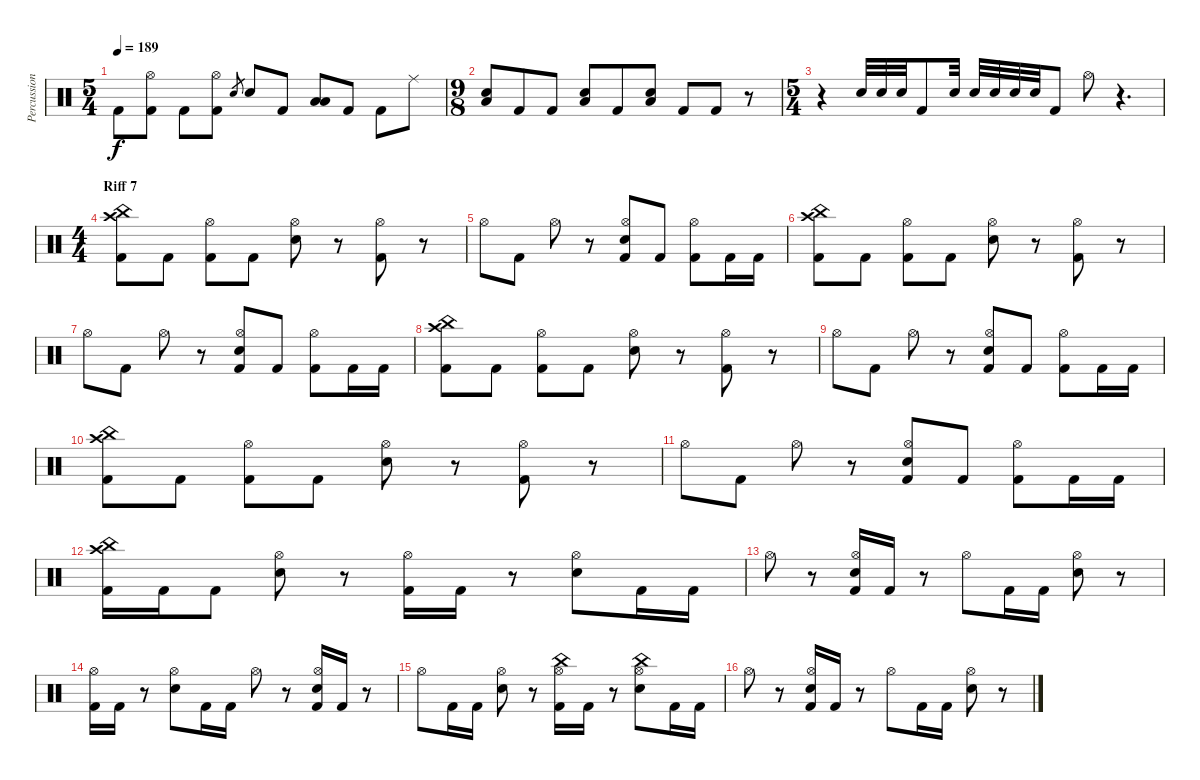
\track ("Percussion" "Percussion") {instrument percussion}
\staff {score}
\articulation defaults
\ts (5 4)
\tempo 189
\clef neutral
\ks c "Kick (hit) 2".8{dy f}
("Hi-Hat (open)" "Kick (hit) 2").8 "Kick (hit) 2".8 ("Hi-Hat (open)" "Kick (hit) 2").8 "Electric Snare (hit)".8{gr} "Electric Snare (hit)".8 "Kick (hit) 2".8 ("Low Tom (hit)" "Low Floor Tom (hit)").8 "Kick (hit) 2".8 "Kick (hit) 2".8 "Ride (middle)".8 |
\ts (9 8)
("Electric Snare (hit)" "Low Floor Tom (hit)").8 "Kick (hit) 2".8 "Kick (hit) 2".8 ("Electric Snare (hit)" "Low Floor Tom (hit)").8 "Kick (hit) 2".8 ("Electric Snare (hit)" "Low Floor Tom (hit)").8 "Kick (hit) 2".8 "Kick (hit) 2".8 r.8 |
\ts (5 4)
r.4 "Electric Snare (hit)".32 "Electric Snare (hit)".32 "Electric Snare (hit)".32 "Kick (hit) 2".8 "Electric Snare (hit)".32 "Electric Snare (hit)".32 "Electric Snare (hit)".32 "Electric Snare (hit)".32 "Electric Snare (hit)".32 "Kick (hit) 2".8 "Hi-Hat (open)".8 r.4{d} |
\ts (4 4)
\section ("" "Riff 7")
("China (hit)" "Crash high (hit)" "Kick (hit) 2").8 "Kick (hit) 2".8 ("Hi-Hat (open)" "Kick (hit) 2").8 "Kick (hit) 2".8 ("Hi-Hat (open)" "Electric Snare (hit)").8 r.8 ("Hi-Hat (open)" "Kick (hit) 2").8 r.8 |
"Hi-Hat (open)".8 "Kick (hit) 2".8 "Hi-Hat (open)".8 r.8 ("Hi-Hat (open)" "Electric Snare (hit)" "Kick (hit) 2").8 "Kick (hit) 2".8 ("Hi-Hat (open)" "Kick (hit) 2").8 "Kick (hit) 2".16 "Kick (hit) 2".16 |
("China (hit)" "Crash high (hit)" "Kick (hit) 2").8 "Kick (hit) 2".8 ("Hi-Hat (open)" "Kick (hit) 2").8 "Kick (hit) 2".8 ("Hi-Hat (open)" "Electric Snare (hit)").8 r.8 ("Hi-Hat (open)" "Kick (hit) 2").8 r.8 |
"Hi-Hat (open)".8 "Kick (hit) 2".8 "Hi-Hat (open)".8 r.8 ("Hi-Hat (open)" "Electric Snare (hit)" "Kick (hit) 2").8 "Kick (hit) 2".8 ("Hi-Hat (open)" "Kick (hit) 2").8 "Kick (hit) 2".16 "Kick (hit) 2".16 |
("China (hit)" "Crash high (hit)" "Kick (hit) 2").8 "Kick (hit) 2".8 ("Hi-Hat (open)" "Kick (hit) 2").8 "Kick (hit) 2".8 ("Hi-Hat (open)" "Electric Snare (hit)").8 r.8 ("Hi-Hat (open)" "Kick (hit) 2").8 r.8 |
"Hi-Hat (open)".8 "Kick (hit) 2".8 "Hi-Hat (open)".8 r.8 ("Hi-Hat (open)" "Electric Snare (hit)" "Kick (hit) 2").8 "Kick (hit) 2".8 ("Hi-Hat (open)" "Kick (hit) 2").8 "Kick (hit) 2".16 "Kick (hit) 2".16 |
("China (hit)" "Crash high (hit)" "Kick (hit) 2").8 "Kick (hit) 2".8 ("Hi-Hat (open)" "Kick (hit) 2").8 "Kick (hit) 2".8 ("Hi-Hat (open)" "Electric Snare (hit)").8 r.8 ("Hi-Hat (open)" "Kick (hit) 2").8 r.8 |
"Hi-Hat (open)".8 "Kick (hit) 2".8 "Hi-Hat (open)".8 r.8 ("Hi-Hat (open)" "Electric Snare (hit)" "Kick (hit) 2").8 "Kick (hit) 2".8 ("Hi-Hat (open)" "Kick (hit) 2").8 "Kick (hit) 2".16 "Kick (hit) 2".16 |
("China (hit)" "Crash high (hit)" "Kick (hit) 2").16 "Kick (hit) 2".16 "Kick (hit) 2".8 ("Hi-Hat (open)" "Electric Snare (hit)").8 r.8 ("Hi-Hat (open)" "Kick (hit) 2").16 "Kick (hit) 2".16 r.8 ("Hi-Hat (open)" "Electric Snare (hit)").8 "Kick (hit) 2".16 "Kick (hit) 2".16 |
"Hi-Hat (open)".8 r.8 ("Hi-Hat (open)" "Electric Snare (hit)" "Kick (hit) 2").16 "Kick (hit) 2".16 r.8 "Hi-Hat (open)".8 "Kick (hit) 2".16 "Kick (hit) 2".16 ("Hi-Hat (open)" "Electric Snare (hit)").8 r.8 |
("Hi-Hat (open)" "Kick (hit) 2").16 "Kick (hit) 2".16 r.8 ("Hi-Hat (open)" "Electric Snare (hit)").8 "Kick (hit) 2".16 "Kick (hit) 2".16 "Hi-Hat (open)".8 r.8 ("Hi-Hat (open)" "Electric Snare (hit)" "Kick (hit) 2").16 "Kick (hit) 2".16 r.8 |
"Hi-Hat (open)".8 "Kick (hit) 2".16 "Kick (hit) 2".16 ("Hi-Hat (open)" "Electric Snare (hit)").8 r.8 ("China (hit)" "Hi-Hat (open)" "Kick (hit) 2").16 "Kick (hit) 2".16 r.8 ("China (hit)" "Hi-Hat (open)" "Electric Snare (hit)").8 "Kick (hit) 2".16 "Kick (hit) 2".16 |
"Hi-Hat (open)".8 r.8 ("Hi-Hat (open)" "Electric Snare (hit)" "Kick (hit) 2").16 "Kick (hit) 2".16 r.8 "Hi-Hat (open)".8 "Kick (hit) 2".16 "Kick (hit) 2".16 ("Hi-Hat (open)" "Electric Snare (hit)").8 r.8
